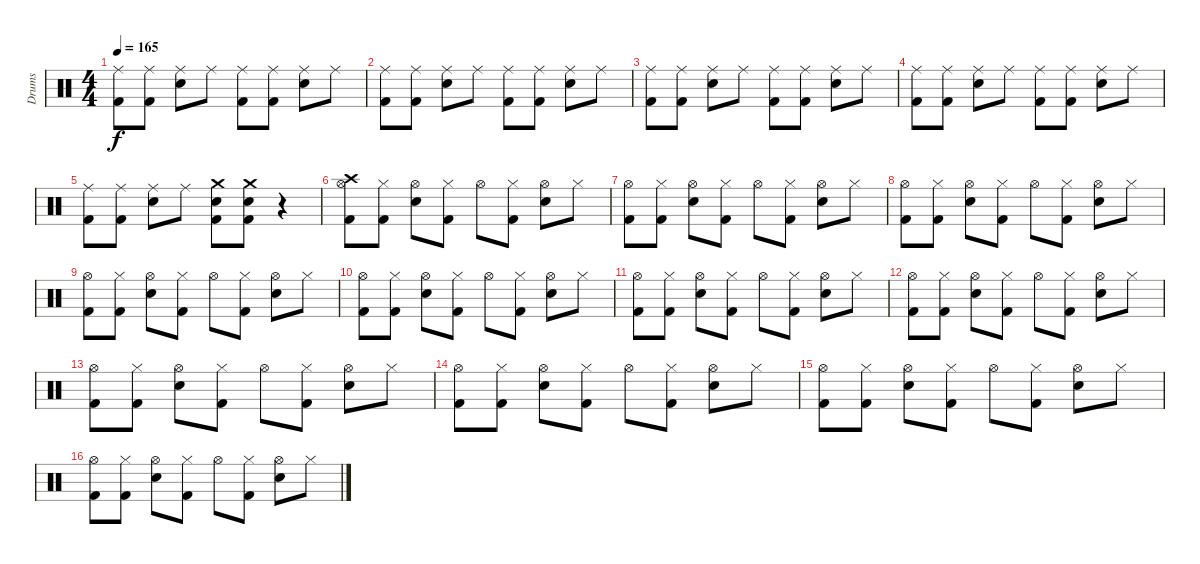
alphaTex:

\track ("Drums" "Drums") {instrument percussion}
\staff {score}
\articulation defaults
\ts (4 4)
\tempo 165
\clef neutral
\ks c
("Kick (hit) 2" "Ride (middle)").8{dy f} ("Kick (hit) 2" "Ride (middle)").8 ("Snare (hit) 2" "Ride (middle)").8 "Ride (middle)".8 ("Kick (hit) 2" "Ride (middle)").8 ("Kick (hit) 2" "Ride (middle)").8 ("Snare (hit) 2" "Ride (middle)").8 "Ride (middle)".8 |
("Kick (hit) 2" "Ride (middle)").8 ("Kick (hit) 2" "Ride (middle)").8 ("Snare (hit) 2" "Ride (middle)").8 "Ride (middle)".8 ("Kick (hit) 2" "Ride (middle)").8 ("Kick (hit) 2" "Ride (middle)").8 ("Snare (hit) 2" "Ride (middle)").8 "Ride (middle)".8 |
("Kick (hit) 2" "Ride (middle)").8 ("Kick (hit) 2" "Ride (middle)").8 ("Snare (hit) 2" "Ride (middle)").8 "Ride (middle)".8 ("Kick (hit) 2" "Ride (middle)").8 ("Kick (hit) 2" "Ride (middle)").8 ("Snare (hit) 2" "Ride (middle)").8 "Ride (middle)".8 |
("Kick (hit) 2" "Ride (middle)").8 ("Kick (hit) 2" "Ride (middle)").8 ("Snare (hit) 2" "Ride (middle)").8 "Ride (middle)".8 ("Kick (hit) 2" "Ride (middle)").8 ("Kick (hit) 2" "Ride (middle)").8 ("Snare (hit) 2" "Ride (middle)").8 "Ride (middle)".8 |
("Kick (hit) 2" "Ride (middle)").8 ("Kick (hit) 2" "Ride (middle)").8 ("Snare (hit) 2" "Ride (middle)").8 "Ride (middle)".8 ("Kick (hit) 2" "Crash medium (hit)" "Snare (hit) 2").8 ("Kick (hit) 2" "Crash medium (hit)" "Snare (hit) 2").8 r.4 |
("Crash high (hit)" "Kick (hit) 2" "Hi-Hat (open)").8 ("Kick (hit) 2" "Hi-Hat (closed)").8 ("Snare (hit) 2" "Hi-Hat (open)").8 ("Kick (hit) 2" "Hi-Hat (closed)").8 "Hi-Hat (open)".8 ("Kick (hit) 2" "Hi-Hat (closed)").8 ("Snare (hit) 2" "Hi-Hat (open)").8 "Hi-Hat (closed)".8 |
("Kick (hit) 2" "Hi-Hat (open)").8 ("Kick (hit) 2" "Hi-Hat (closed)").8 ("Snare (hit) 2" "Hi-Hat (open)").8 ("Kick (hit) 2" "Hi-Hat (closed)").8 "Hi-Hat (open)".8 ("Kick (hit) 2" "Hi-Hat (closed)").8 ("Snare (hit) 2" "Hi-Hat (open)").8 "Hi-Hat (closed)".8 |
("Kick (hit) 2" "Hi-Hat (open)").8 ("Kick (hit) 2" "Hi-Hat (closed)").8 ("Snare (hit) 2" "Hi-Hat (open)").8 ("Kick (hit) 2" "Hi-Hat (closed)").8 "Hi-Hat (open)".8 ("Kick (hit) 2" "Hi-Hat (closed)").8 ("Snare (hit) 2" "Hi-Hat (open)").8 "Hi-Hat (closed)".8 |
("Kick (hit) 2" "Hi-Hat (open)").8 ("Kick (hit) 2" "Hi-Hat (closed)").8 ("Snare (hit) 2" "Hi-Hat (open)").8 ("Kick (hit) 2" "Hi-Hat (closed)").8 "Hi-Hat (open)".8 ("Kick (hit) 2" "Hi-Hat (closed)").8 ("Snare (hit) 2" "Hi-Hat (open)").8 "Hi-Hat (closed)".8 |
("Kick (hit) 2" "Hi-Hat (open)").8 ("Kick (hit) 2" "Hi-Hat (closed)").8 ("Snare (hit) 2" "Hi-Hat (open)").8 ("Kick (hit) 2" "Hi-Hat (closed)").8 "Hi-Hat (open)".8 ("Kick (hit) 2" "Hi-Hat (closed)").8 ("Snare (hit) 2" "Hi-Hat (open)").8 "Hi-Hat (closed)".8 |
("Kick (hit) 2" "Hi-Hat (open)").8 ("Kick (hit) 2" "Hi-Hat (closed)").8 ("Snare (hit) 2" "Hi-Hat (open)").8 ("Kick (hit) 2" "Hi-Hat (closed)").8 "Hi-Hat (open)".8 ("Kick (hit) 2" "Hi-Hat (closed)").8 ("Snare (hit) 2" "Hi-Hat (open)").8 "Hi-Hat (closed)".8 |
("Kick (hit) 2" "Hi-Hat (open)").8 ("Kick (hit) 2" "Hi-Hat (closed)").8 ("Snare (hit) 2" "Hi-Hat (open)").8 ("Kick (hit) 2" "Hi-Hat (closed)").8 "Hi-Hat (open)".8 ("Kick (hit) 2" "Hi-Hat (closed)").8 ("Snare (hit) 2" "Hi-Hat (open)").8 "Hi-Hat (closed)".8 |
("Kick (hit) 2" "Hi-Hat (open)").8 ("Kick (hit) 2" "Hi-Hat (closed)").8 ("Snare (hit) 2" "Hi-Hat (open)").8 ("Kick (hit) 2" "Hi-Hat (closed)").8 "Hi-Hat (open)".8 ("Kick (hit) 2" "Hi-Hat (closed)").8 ("Snare (hit) 2" "Hi-Hat (open)").8 "Hi-Hat (closed)".8 |
("Kick (hit) 2" "Hi-Hat (open)").8 ("Kick (hit) 2" "Hi-Hat (closed)").8 ("Snare (hit) 2" "Hi-Hat (open)").8 ("Kick (hit) 2" "Hi-Hat (closed)").8 "Hi-Hat (open)".8 ("Kick (hit) 2" "Hi-Hat (closed)").8 ("Snare (hit) 2" "Hi-Hat (open)").8 "Hi-Hat (closed)".8 |
("Kick (hit) 2" "Hi-Hat (open)").8 ("Kick (hit) 2" "Hi-Hat (closed)").8 ("Snare (hit) 2" "Hi-Hat (open)").8 ("Kick (hit) 2" "Hi-Hat (closed)").8 "Hi-Hat (open)".8 ("Kick (hit) 2" "Hi-Hat (closed)").8 ("Snare (hit) 2" "Hi-Hat (open)").8 "Hi-Hat (closed)".8 |
("Kick (hit) 2" "Hi-Hat (open)").8 ("Kick (hit) 2" "Hi-Hat (closed)").8 ("Snare (hit) 2" "Hi-Hat (open)").8 ("Kick (hit) 2" "Hi-Hat (closed)").8 "Hi-Hat (open)".8 ("Kick (hit) 2" "Hi-Hat (closed)").8 ("Snare (hit) 2" "Hi-Hat (open)").8 "Hi-Hat (closed)".8
